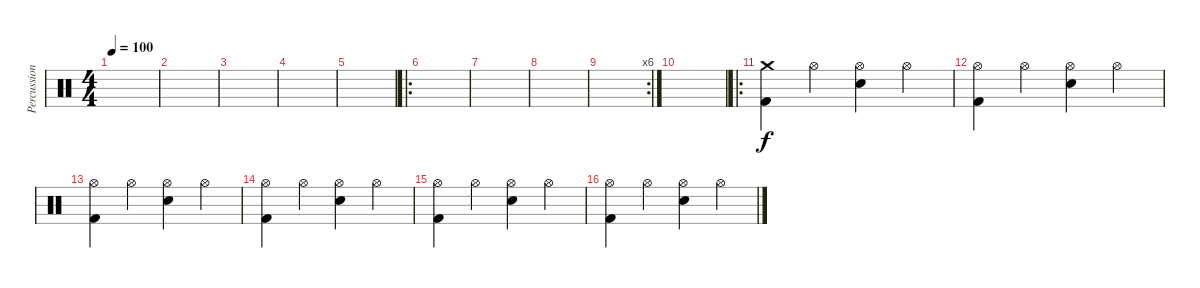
\track ("Percussion" "Percussion") {instrument percussion}
\staff {score}
\articulation defaults
\ts (4 4)
\tempo 100
\clef neutral
\ks c
|
|
|
|
|
\ro
|
|
|
\rc 6
|
|
\ro
("Crash medium (hit)" "Kick (hit) 2").4 "Hi-Hat (open)".4 ("Hi-Hat (open)" "Electric Snare (hit)").4 "Hi-Hat (open)".4 |
("Hi-Hat (open)" "Kick (hit) 2").4 "Hi-Hat (open)".4 ("Hi-Hat (open)" "Electric Snare (hit)").4 "Hi-Hat (open)".4 |
("Hi-Hat (open)" "Kick (hit) 2").4 "Hi-Hat (open)".4 ("Hi-Hat (open)" "Electric Snare (hit)").4 "Hi-Hat (open)".4 |
("Hi-Hat (open)" "Kick (hit) 2").4 "Hi-Hat (open)".4 ("Hi-Hat (open)" "Electric Snare (hit)").4 "Hi-Hat (open)".4 |
("Hi-Hat (open)" "Kick (hit) 2").4 "Hi-Hat (open)".4 ("Hi-Hat (open)" "Electric Snare (hit)").4 "Hi-Hat (open)".4 |
("Hi-Hat (open)" "Kick (hit) 2").4 "Hi-Hat (open)".4 ("Hi-Hat (open)" "Electric Snare (hit)").4 "Hi-Hat (open)".4
